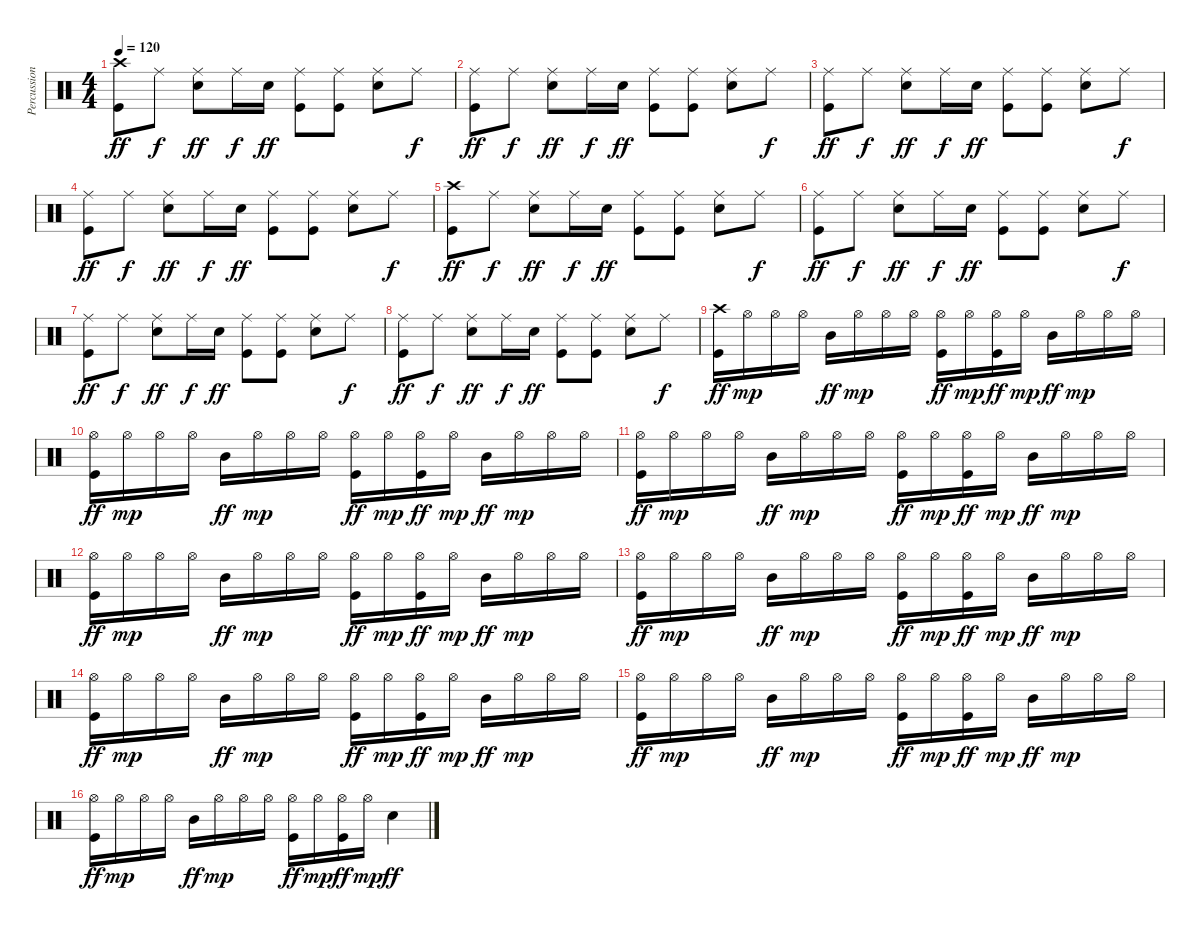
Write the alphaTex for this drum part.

\track ("Percussion" "Percussion") {instrument percussion}
\staff {score}
\articulation defaults
\ts (4 4)
\tempo 120
\clef neutral
\ks c
("Crash high (hit)" "Kick (hit)").8{dy ff} "Ride (middle)".8{dy f} ("Ride (middle)" "Snare (hit) 2").8{dy ff} "Ride (middle)".16{dy f} "Snare (hit) 2".16{dy ff} ("Ride (middle)" "Kick (hit)").8 ("Ride (middle)" "Kick (hit)").8 ("Ride (middle)" "Snare (hit) 2").8 "Ride (middle)".8{dy f} |
("Ride (middle)" "Kick (hit)").8{dy ff} "Ride (middle)".8{dy f} ("Ride (middle)" "Snare (hit) 2").8{dy ff} "Ride (middle)".16{dy f} "Snare (hit) 2".16{dy ff} ("Ride (middle)" "Kick (hit)").8 ("Ride (middle)" "Kick (hit)").8 ("Ride (middle)" "Snare (hit) 2").8 "Ride (middle)".8{dy f} |
("Ride (middle)" "Kick (hit)").8{dy ff} "Ride (middle)".8{dy f} ("Ride (middle)" "Snare (hit) 2").8{dy ff} "Ride (middle)".16{dy f} "Snare (hit) 2".16{dy ff} ("Ride (middle)" "Kick (hit)").8 ("Ride (middle)" "Kick (hit)").8 ("Ride (middle)" "Snare (hit) 2").8 "Ride (middle)".8{dy f} |
("Ride (middle)" "Kick (hit)").8{dy ff} "Ride (middle)".8{dy f} ("Ride (middle)" "Snare (hit) 2").8{dy ff} "Ride (middle)".16{dy f} "Snare (hit) 2".16{dy ff} ("Ride (middle)" "Kick (hit)").8 ("Ride (middle)" "Kick (hit)").8 ("Ride (middle)" "Snare (hit) 2").8 "Ride (middle)".8{dy f} |
("Crash high (hit)" "Kick (hit)").8{dy ff} "Ride (middle)".8{dy f} ("Ride (middle)" "Snare (hit) 2").8{dy ff} "Ride (middle)".16{dy f} "Snare (hit) 2".16{dy ff} ("Ride (middle)" "Kick (hit)").8 ("Ride (middle)" "Kick (hit)").8 ("Ride (middle)" "Snare (hit) 2").8 "Ride (middle)".8{dy f} |
("Ride (middle)" "Kick (hit)").8{dy ff} "Ride (middle)".8{dy f} ("Ride (middle)" "Snare (hit) 2").8{dy ff} "Ride (middle)".16{dy f} "Snare (hit) 2".16{dy ff} ("Ride (middle)" "Kick (hit)").8 ("Ride (middle)" "Kick (hit)").8 ("Ride (middle)" "Snare (hit) 2").8 "Ride (middle)".8{dy f} |
("Ride (middle)" "Kick (hit)").8{dy ff} "Ride (middle)".8{dy f} ("Ride (middle)" "Snare (hit) 2").8{dy ff} "Ride (middle)".16{dy f} "Snare (hit) 2".16{dy ff} ("Ride (middle)" "Kick (hit)").8 ("Ride (middle)" "Kick (hit)").8 ("Ride (middle)" "Snare (hit) 2").8 "Ride (middle)".8{dy f} |
("Ride (middle)" "Kick (hit)").8{dy ff} "Ride (middle)".8{dy f} ("Ride (middle)" "Snare (hit) 2").8{dy ff} "Ride (middle)".16{dy f} "Snare (hit) 2".16{dy ff} ("Ride (middle)" "Kick (hit)").8 ("Ride (middle)" "Kick (hit)").8 ("Ride (middle)" "Snare (hit) 2").8 "Ride (middle)".8{dy f} |
("Crash high (hit)" "Kick (hit)").16{dy ff} "Hi-Hat (open)".16{dy mp} "Hi-Hat (open)".16 "Hi-Hat (open)".16 "Mid Tom (hit)".16{dy ff} "Hi-Hat (open)".16{dy mp} "Hi-Hat (open)".16 "Hi-Hat (open)".16 ("Hi-Hat (open)" "Kick (hit)").16{dy ff} "Hi-Hat (open)".16{dy mp} ("Hi-Hat (open)" "Kick (hit)").16{dy ff} "Hi-Hat (open)".16{dy mp} "Mid Tom (hit)".16{dy ff} "Hi-Hat (open)".16{dy mp} "Hi-Hat (open)".16 "Hi-Hat (open)".16 |
("Hi-Hat (open)" "Kick (hit)").16{dy ff} "Hi-Hat (open)".16{dy mp} "Hi-Hat (open)".16 "Hi-Hat (open)".16 "Mid Tom (hit)".16{dy ff} "Hi-Hat (open)".16{dy mp} "Hi-Hat (open)".16 "Hi-Hat (open)".16 ("Hi-Hat (open)" "Kick (hit)").16{dy ff} "Hi-Hat (open)".16{dy mp} ("Hi-Hat (open)" "Kick (hit)").16{dy ff} "Hi-Hat (open)".16{dy mp} "Mid Tom (hit)".16{dy ff} "Hi-Hat (open)".16{dy mp} "Hi-Hat (open)".16 "Hi-Hat (open)".16 |
("Hi-Hat (open)" "Kick (hit)").16{dy ff} "Hi-Hat (open)".16{dy mp} "Hi-Hat (open)".16 "Hi-Hat (open)".16 "Mid Tom (hit)".16{dy ff} "Hi-Hat (open)".16{dy mp} "Hi-Hat (open)".16 "Hi-Hat (open)".16 ("Hi-Hat (open)" "Kick (hit)").16{dy ff} "Hi-Hat (open)".16{dy mp} ("Hi-Hat (open)" "Kick (hit)").16{dy ff} "Hi-Hat (open)".16{dy mp} "Mid Tom (hit)".16{dy ff} "Hi-Hat (open)".16{dy mp} "Hi-Hat (open)".16 "Hi-Hat (open)".16 |
("Hi-Hat (open)" "Kick (hit)").16{dy ff} "Hi-Hat (open)".16{dy mp} "Hi-Hat (open)".16 "Hi-Hat (open)".16 "Mid Tom (hit)".16{dy ff} "Hi-Hat (open)".16{dy mp} "Hi-Hat (open)".16 "Hi-Hat (open)".16 ("Hi-Hat (open)" "Kick (hit)").16{dy ff} "Hi-Hat (open)".16{dy mp} ("Hi-Hat (open)" "Kick (hit)").16{dy ff} "Hi-Hat (open)".16{dy mp} "Mid Tom (hit)".16{dy ff} "Hi-Hat (open)".16{dy mp} "Hi-Hat (open)".16 "Hi-Hat (open)".16 |
("Hi-Hat (open)" "Kick (hit)").16{dy ff} "Hi-Hat (open)".16{dy mp} "Hi-Hat (open)".16 "Hi-Hat (open)".16 "Mid Tom (hit)".16{dy ff} "Hi-Hat (open)".16{dy mp} "Hi-Hat (open)".16 "Hi-Hat (open)".16 ("Hi-Hat (open)" "Kick (hit)").16{dy ff} "Hi-Hat (open)".16{dy mp} ("Hi-Hat (open)" "Kick (hit)").16{dy ff} "Hi-Hat (open)".16{dy mp} "Mid Tom (hit)".16{dy ff} "Hi-Hat (open)".16{dy mp} "Hi-Hat (open)".16 "Hi-Hat (open)".16 |
("Hi-Hat (open)" "Kick (hit)").16{dy ff} "Hi-Hat (open)".16{dy mp} "Hi-Hat (open)".16 "Hi-Hat (open)".16 "Mid Tom (hit)".16{dy ff} "Hi-Hat (open)".16{dy mp} "Hi-Hat (open)".16 "Hi-Hat (open)".16 ("Hi-Hat (open)" "Kick (hit)").16{dy ff} "Hi-Hat (open)".16{dy mp} ("Hi-Hat (open)" "Kick (hit)").16{dy ff} "Hi-Hat (open)".16{dy mp} "Mid Tom (hit)".16{dy ff} "Hi-Hat (open)".16{dy mp} "Hi-Hat (open)".16 "Hi-Hat (open)".16 |
("Hi-Hat (open)" "Kick (hit)").16{dy ff} "Hi-Hat (open)".16{dy mp} "Hi-Hat (open)".16 "Hi-Hat (open)".16 "Mid Tom (hit)".16{dy ff} "Hi-Hat (open)".16{dy mp} "Hi-Hat (open)".16 "Hi-Hat (open)".16 ("Hi-Hat (open)" "Kick (hit)").16{dy ff} "Hi-Hat (open)".16{dy mp} ("Hi-Hat (open)" "Kick (hit)").16{dy ff} "Hi-Hat (open)".16{dy mp} "Mid Tom (hit)".16{dy ff} "Hi-Hat (open)".16{dy mp} "Hi-Hat (open)".16 "Hi-Hat (open)".16 |
("Hi-Hat (open)" "Kick (hit)").16{dy ff} "Hi-Hat (open)".16{dy mp} "Hi-Hat (open)".16 "Hi-Hat (open)".16 "Mid Tom (hit)".16{dy ff} "Hi-Hat (open)".16{dy mp} "Hi-Hat (open)".16 "Hi-Hat (open)".16 ("Hi-Hat (open)" "Kick (hit)").16{dy ff} "Hi-Hat (open)".16{dy mp} ("Hi-Hat (open)" "Kick (hit)").16{dy ff} "Hi-Hat (open)".16{dy mp} "Snare (hit) 2".4{dy ff}
